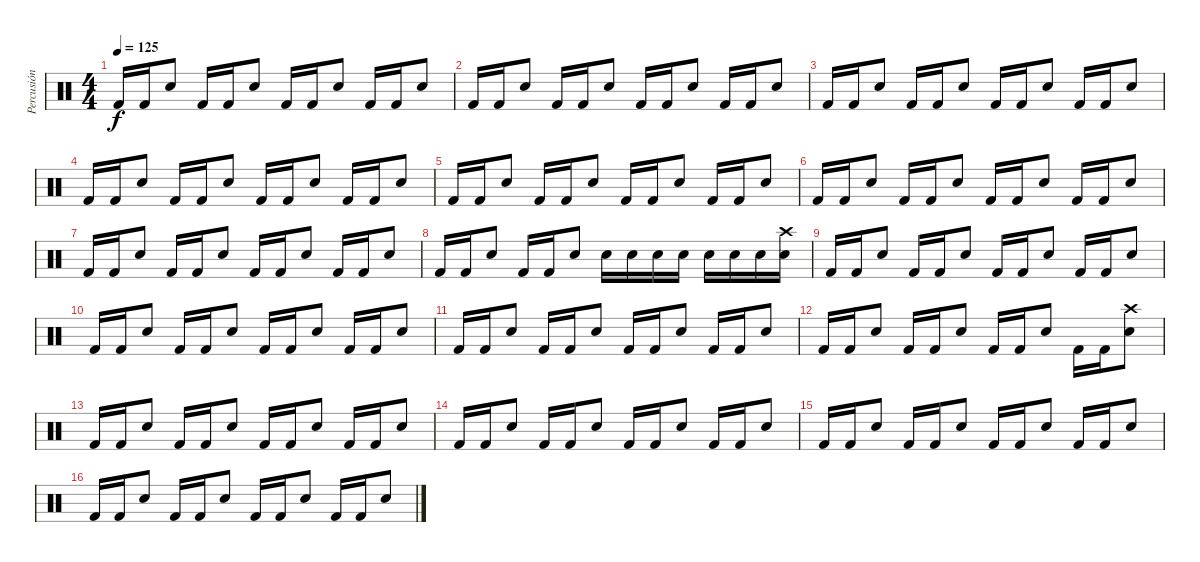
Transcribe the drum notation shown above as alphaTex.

\track ("Percusión" "Percusión") {instrument percussion}
\staff {score}
\articulation defaults
\ts (4 4)
\tempo 125
\clef neutral
\ks c "Kick (hit) 2".16{dy f} "Kick (hit) 2".16 "Snare (hit) 2".8 "Kick (hit) 2".16 "Kick (hit) 2".16 "Snare (hit) 2".8 "Kick (hit) 2".16 "Kick (hit) 2".16 "Snare (hit) 2".8 "Kick (hit) 2".16 "Kick (hit) 2".16 "Snare (hit) 2".8
|
"Kick (hit) 2".16 "Kick (hit) 2".16 "Snare (hit) 2".8 "Kick (hit) 2".16 "Kick (hit) 2".16 "Snare (hit) 2".8 "Kick (hit) 2".16 "Kick (hit) 2".16 "Snare (hit) 2".8 "Kick (hit) 2".16 "Kick (hit) 2".16 "Snare (hit) 2".8 |
"Kick (hit) 2".16 "Kick (hit) 2".16 "Snare (hit) 2".8 "Kick (hit) 2".16 "Kick (hit) 2".16 "Snare (hit) 2".8 "Kick (hit) 2".16 "Kick (hit) 2".16 "Snare (hit) 2".8 "Kick (hit) 2".16 "Kick (hit) 2".16 "Snare (hit) 2".8 |
"Kick (hit) 2".16 "Kick (hit) 2".16 "Snare (hit) 2".8 "Kick (hit) 2".16 "Kick (hit) 2".16 "Snare (hit) 2".8 "Kick (hit) 2".16 "Kick (hit) 2".16 "Snare (hit) 2".8 "Kick (hit) 2".16 "Kick (hit) 2".16 "Snare (hit) 2".8 |
"Kick (hit) 2".16 "Kick (hit) 2".16 "Snare (hit) 2".8 "Kick (hit) 2".16 "Kick (hit) 2".16 "Snare (hit) 2".8 "Kick (hit) 2".16 "Kick (hit) 2".16 "Snare (hit) 2".8 "Kick (hit) 2".16 "Kick (hit) 2".16 "Snare (hit) 2".8 |
"Kick (hit) 2".16 "Kick (hit) 2".16 "Snare (hit) 2".8 "Kick (hit) 2".16 "Kick (hit) 2".16 "Snare (hit) 2".8 "Kick (hit) 2".16 "Kick (hit) 2".16 "Snare (hit) 2".8 "Kick (hit) 2".16 "Kick (hit) 2".16 "Snare (hit) 2".8 |
"Kick (hit) 2".16 "Kick (hit) 2".16 "Snare (hit) 2".8 "Kick (hit) 2".16 "Kick (hit) 2".16 "Snare (hit) 2".8 "Kick (hit) 2".16 "Kick (hit) 2".16 "Snare (hit) 2".8 "Kick (hit) 2".16 "Kick (hit) 2".16 "Snare (hit) 2".8 |
"Kick (hit) 2".16 "Kick (hit) 2".16 "Snare (hit) 2".8 "Kick (hit) 2".16 "Kick (hit) 2".16 "Snare (hit) 2".8 "Snare (hit) 2".16 "Snare (hit) 2".16 "Snare (hit) 2".16 "Snare (hit) 2".16 "Snare (hit) 2".16 "Snare (hit) 2".16 "Snare (hit) 2".16 ("Snare (hit) 2" "Crash high (hit)").16 |
"Kick (hit) 2".16 "Kick (hit) 2".16 "Snare (hit) 2".8 "Kick (hit) 2".16 "Kick (hit) 2".16 "Snare (hit) 2".8 "Kick (hit) 2".16 "Kick (hit) 2".16 "Snare (hit) 2".8 "Kick (hit) 2".16 "Kick (hit) 2".16 "Snare (hit) 2".8 |
"Kick (hit) 2".16 "Kick (hit) 2".16 "Snare (hit) 2".8 "Kick (hit) 2".16 "Kick (hit) 2".16 "Snare (hit) 2".8 "Kick (hit) 2".16 "Kick (hit) 2".16 "Snare (hit) 2".8 "Kick (hit) 2".16 "Kick (hit) 2".16 "Snare (hit) 2".8 |
"Kick (hit) 2".16 "Kick (hit) 2".16 "Snare (hit) 2".8 "Kick (hit) 2".16 "Kick (hit) 2".16 "Snare (hit) 2".8 "Kick (hit) 2".16 "Kick (hit) 2".16 "Snare (hit) 2".8 "Kick (hit) 2".16 "Kick (hit) 2".16 "Snare (hit) 2".8 |
"Kick (hit) 2".16 "Kick (hit) 2".16 "Snare (hit) 2".8 "Kick (hit) 2".16 "Kick (hit) 2".16 "Snare (hit) 2".8 "Kick (hit) 2".16 "Kick (hit) 2".16 "Snare (hit) 2".8 "Kick (hit) 2".16 "Kick (hit) 2".16 ("Snare (hit) 2" "Crash high (hit)").8 |
"Kick (hit) 2".16 "Kick (hit) 2".16 "Snare (hit) 2".8 "Kick (hit) 2".16 "Kick (hit) 2".16 "Snare (hit) 2".8 "Kick (hit) 2".16 "Kick (hit) 2".16 "Snare (hit) 2".8 "Kick (hit) 2".16 "Kick (hit) 2".16 "Snare (hit) 2".8 |
"Kick (hit) 2".16 "Kick (hit) 2".16 "Snare (hit) 2".8 "Kick (hit) 2".16 "Kick (hit) 2".16 "Snare (hit) 2".8 "Kick (hit) 2".16 "Kick (hit) 2".16 "Snare (hit) 2".8 "Kick (hit) 2".16 "Kick (hit) 2".16 "Snare (hit) 2".8 |
"Kick (hit) 2".16 "Kick (hit) 2".16 "Snare (hit) 2".8 "Kick (hit) 2".16 "Kick (hit) 2".16 "Snare (hit) 2".8 "Kick (hit) 2".16 "Kick (hit) 2".16 "Snare (hit) 2".8 "Kick (hit) 2".16 "Kick (hit) 2".16 "Snare (hit) 2".8 |
"Kick (hit) 2".16 "Kick (hit) 2".16 "Snare (hit) 2".8 "Kick (hit) 2".16 "Kick (hit) 2".16 "Snare (hit) 2".8 "Kick (hit) 2".16 "Kick (hit) 2".16 "Snare (hit) 2".8 "Kick (hit) 2".16 "Kick (hit) 2".16 "Snare (hit) 2".8
